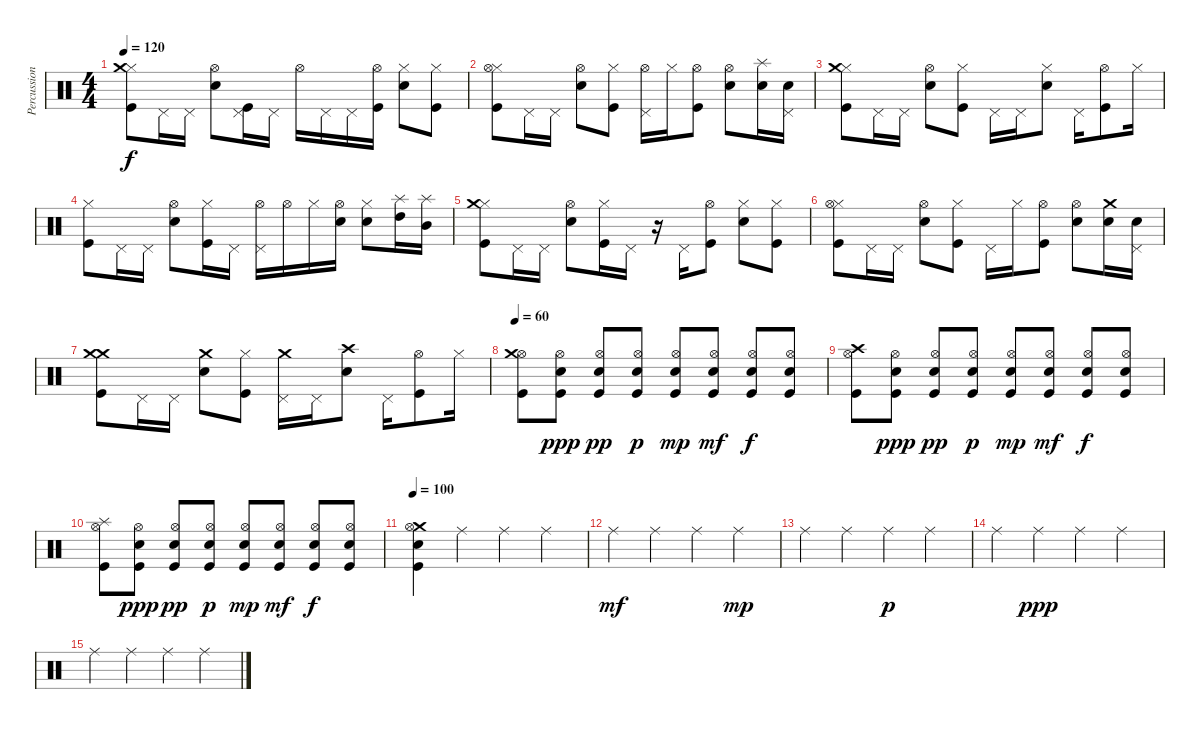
\track ("Percussions" "Percussion") {instrument percussion}
\staff {score}
\articulation defaults
\ts (4 4)
\tempo 120
\clef neutral
\ks c
("Hi-Hat (closed)" "Crash medium (hit)" "Kick (hit)").8{dy f} "Pedal Hi-Hat (hit)".16 "Pedal Hi-Hat (hit)".16 ("Hi-Hat (open)" "Electric Snare (hit)").8 ("Pedal Hi-Hat (hit)" "Kick (hit)").16 "Pedal Hi-Hat (hit)".16 "Hi-Hat (open)".16 "Pedal Hi-Hat (hit)".16 "Pedal Hi-Hat (hit)".16 ("Hi-Hat (open)" "Kick (hit)").16 ("Hi-Hat (closed)" "Electric Snare (hit)").8 ("Hi-Hat (closed)" "Kick (hit)").8 |
("Hi-Hat (closed)" "Hi-Hat (open)" "Kick (hit)").8 "Pedal Hi-Hat (hit)".16 "Pedal Hi-Hat (hit)".16 ("Hi-Hat (open)" "Electric Snare (hit)").8 ("Hi-Hat (closed)" "Kick (hit)").8 ("Hi-Hat (open)" "Pedal Hi-Hat (hit)").16 "Hi-Hat (closed)".16 ("Hi-Hat (open)" "Kick (hit)").8 ("Hi-Hat (open)" "Electric Snare (hit)").8 ("Splash (hit)" "Electric Snare (hit)").16 ("Pedal Hi-Hat (hit)" "Electric Snare (hit)").16 |
("Hi-Hat (closed)" "Crash medium (hit)" "Kick (hit)").8 "Pedal Hi-Hat (hit)".16 "Pedal Hi-Hat (hit)".16 ("Hi-Hat (open)" "Electric Snare (hit)").8 ("Hi-Hat (closed)" "Kick (hit)").8 "Pedal Hi-Hat (hit)".16 "Pedal Hi-Hat (hit)".16 ("Hi-Hat (closed)" "Electric Snare (hit)").8 "Pedal Hi-Hat (hit)".16 ("Hi-Hat (open)" "Kick (hit)").8 "Hi-Hat (closed)".16 |
("Hi-Hat (closed)" "Kick (hit)").8 "Pedal Hi-Hat (hit)".16 "Pedal Hi-Hat (hit)".16 ("Hi-Hat (open)" "Electric Snare (hit)").8 ("Hi-Hat (closed)" "Kick (hit)").16 "Pedal Hi-Hat (hit)".16 ("Hi-Hat (open)" "Pedal Hi-Hat (hit)").16 "Hi-Hat (open)".16 "Hi-Hat (closed)".16 ("Hi-Hat (open)" "Electric Snare (hit)").16 ("Hi-Hat (closed)" "Electric Snare (hit)").8 ("Splash (hit)" "High Tom (hit)").16 ("Splash (hit)" "Mid Tom (hit)").16 |
("Hi-Hat (closed)" "Crash medium (hit)" "Kick (hit)").8 "Pedal Hi-Hat (hit)".16 "Pedal Hi-Hat (hit)".16 ("Hi-Hat (open)" "Electric Snare (hit)").8 ("Hi-Hat (closed)" "Kick (hit)").16 "Pedal Hi-Hat (hit)".16 r.16 "Pedal Hi-Hat (hit)".16 ("Hi-Hat (open)" "Kick (hit)").8 ("Hi-Hat (closed)" "Electric Snare (hit)").8 ("Hi-Hat (closed)" "Kick (hit)").8 |
("Hi-Hat (closed)" "Hi-Hat (open)" "Kick (hit)").8 "Pedal Hi-Hat (hit)".16 "Pedal Hi-Hat (hit)".16 ("Hi-Hat (open)" "Electric Snare (hit)").8 ("Hi-Hat (closed)" "Kick (hit)").8 "Pedal Hi-Hat (hit)".16 "Hi-Hat (closed)".16 ("Hi-Hat (open)" "Kick (hit)").8 ("Hi-Hat (open)" "Electric Snare (hit)").8 ("Crash medium (hit)" "Electric Snare (hit)").16 ("Pedal Hi-Hat (hit)" "Electric Snare (hit)").16 |
("Crash medium (hit)" "Crash medium (hit)" "Kick (hit)").8 "Pedal Hi-Hat (hit)".16 "Pedal Hi-Hat (hit)".16 ("Crash medium (hit)" "Electric Snare (hit)").8 ("Hi-Hat (closed)" "Kick (hit)").8 ("Crash medium (hit)" "Pedal Hi-Hat (hit)").16 "Pedal Hi-Hat (hit)".16 ("Crash high (hit)" "Electric Snare (hit)").8 "Pedal Hi-Hat (hit)".16 ("Hi-Hat (open)" "Kick (hit)").8 "Hi-Hat (closed)".16 |
\tempo 60
("Hi-Hat (open)" "Crash medium (hit)" "Kick (hit)").8 ("Hi-Hat (open)" "Kick (hit)" "Electric Snare (hit)").8{dy ppp} ("Hi-Hat (open)" "Kick (hit)" "Electric Snare (hit)").8{dy pp} ("Hi-Hat (open)" "Kick (hit)" "Electric Snare (hit)").8{dy p} ("Hi-Hat (open)" "Kick (hit)" "Electric Snare (hit)").8{dy mp} ("Hi-Hat (open)" "Kick (hit)" "Electric Snare (hit)").8{dy mf} ("Hi-Hat (open)" "Electric Snare (hit)" "Kick (hit)").8{dy f} ("Hi-Hat (open)" "Electric Snare (hit)" "Kick (hit)").8 |
("Hi-Hat (open)" "Crash high (hit)" "Kick (hit)").8 ("Hi-Hat (open)" "Kick (hit)" "Electric Snare (hit)").8{dy ppp} ("Hi-Hat (open)" "Kick (hit)" "Electric Snare (hit)").8{dy pp} ("Hi-Hat (open)" "Kick (hit)" "Electric Snare (hit)").8{dy p} ("Hi-Hat (open)" "Kick (hit)" "Electric Snare (hit)").8{dy mp} ("Hi-Hat (open)" "Kick (hit)" "Electric Snare (hit)").8{dy mf} ("Hi-Hat (open)" "Electric Snare (hit)" "Kick (hit)").8{dy f} ("Hi-Hat (open)" "Electric Snare (hit)" "Kick (hit)").8 |
("Hi-Hat (open)" "Splash (hit)" "Kick (hit)").8 ("Hi-Hat (open)" "Kick (hit)" "Electric Snare (hit)").8{dy ppp} ("Hi-Hat (open)" "Kick (hit)" "Electric Snare (hit)").8{dy pp} ("Hi-Hat (open)" "Kick (hit)" "Electric Snare (hit)").8{dy p} ("Hi-Hat (open)" "Kick (hit)" "Electric Snare (hit)").8{dy mp} ("Hi-Hat (open)" "Kick (hit)" "Electric Snare (hit)").8{dy mf} ("Hi-Hat (open)" "Electric Snare (hit)" "Kick (hit)").8{dy f} ("Hi-Hat (open)" "Electric Snare (hit)" "Kick (hit)").8 |
\tempo 100
("Crash medium (hit)" "Hi-Hat (open)" "Kick (hit)" "Electric Snare (hit)").4 "Ride (middle)".4 "Ride (middle)".4 "Ride (middle)".4 |
"Ride (middle)".4{dy mf} "Ride (middle)".4 "Ride (middle)".4 "Ride (middle)".4{dy mp} |
"Ride (middle)".4 "Ride (middle)".4 "Ride (middle)".4{dy p} "Ride (middle)".4 |
"Ride (middle)".4 "Ride (middle)".4{dy ppp} "Ride (middle)".4 "Ride (middle)".4 |
"Ride (middle)".4 "Ride (middle)".4 "Ride (middle)".4 "Ride (middle)".4
